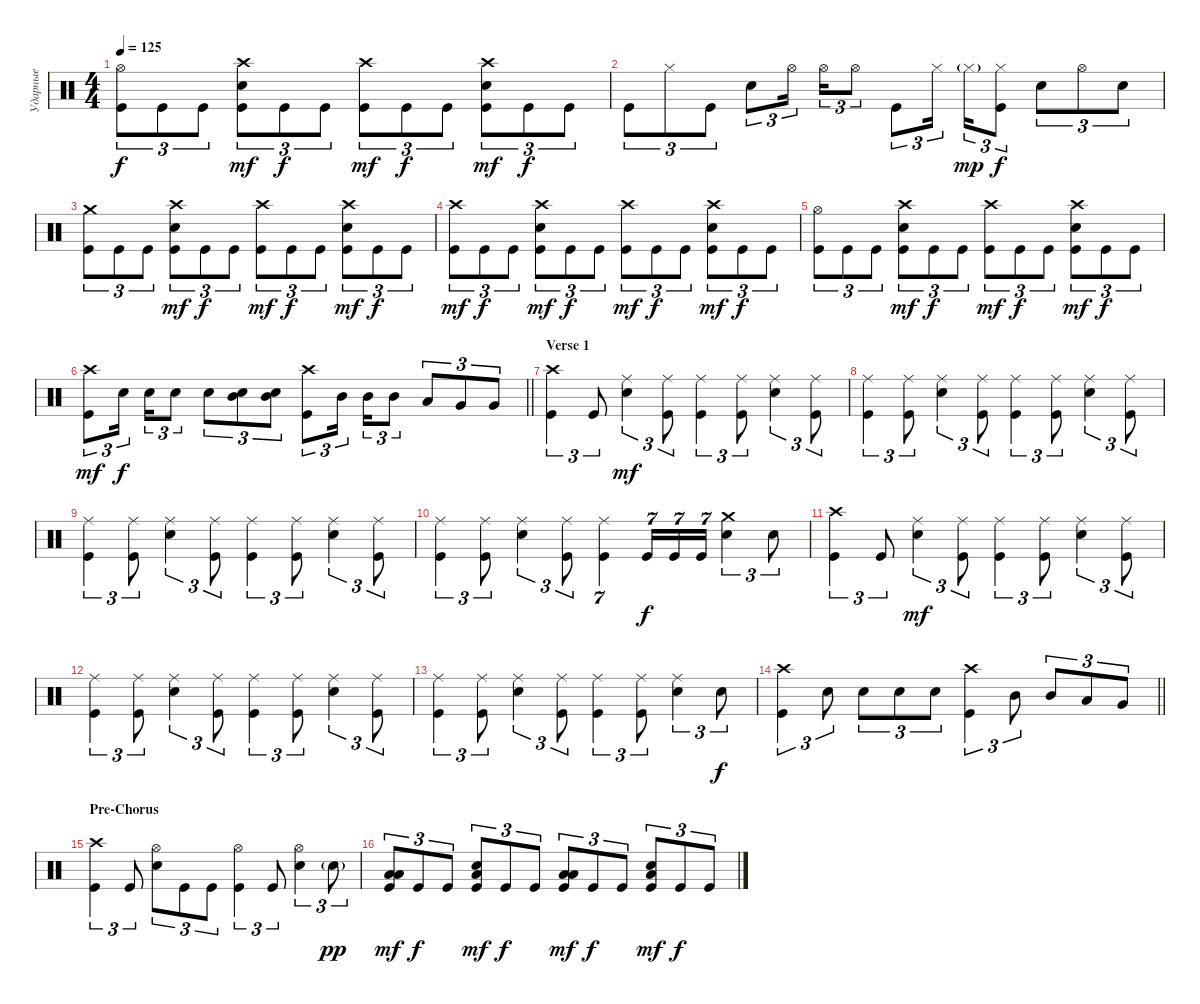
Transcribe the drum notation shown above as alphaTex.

\track ("Ударные" "Ударные") {instrument percussion}
\staff {score}
\articulation defaults
\ts (4 4)
\tempo 125
\clef neutral
\ks c
("Kick (hit)" "Hi-Hat (open)").8{tu (3 2) dy f} "Kick (hit)".8{tu (3 2)} "Kick (hit)".8{tu (3 2)} ("Kick (hit)" "Snare (hit) 2" "Crash high (hit)").8{tu (3 2) dy mf} "Kick (hit)".8{tu (3 2) dy f} "Kick (hit)".8{tu (3 2)} ("Kick (hit)" "Crash high (hit)").8{tu (3 2) dy mf} "Kick (hit)".8{tu (3 2) dy f} "Kick (hit)".8{tu (3 2)} ("Kick (hit)" "Snare (hit) 2" "Crash high (hit)").8{tu (3 2) dy mf} "Kick (hit)".8{tu (3 2) dy f} "Kick (hit)".8{tu (3 2)} |
"Kick (hit)".8{tu (3 2)} "Hi-Hat (closed)".8{tu (3 2)} "Kick (hit)".8{tu (3 2)} "Snare (hit) 2".8{tu (3 2)} "Hi-Hat (open)".16{tu (3 2) beam splitsecondary} "Hi-Hat (open)".16{tu (3 2)} "Hi-Hat (open)".8{tu (3 2)} "Kick (hit)".8{tu (3 2)} "Hi-Hat (closed)".16{tu (3 2) beam splitsecondary} "Hi-Hat (closed)"{g}.16{tu (3 2) dy mp} ("Hi-Hat (closed)" "Kick (hit)").8{tu (3 2) dy f} "Snare (hit) 2".8{tu (3 2)} "Hi-Hat (open)".8{tu (3 2)} "Snare (hit) 2".8{tu (3 2)} |
("Kick (hit)" "Crash medium (hit)").8{tu (3 2)} "Kick (hit)".8{tu (3 2)} "Kick (hit)".8{tu (3 2)} ("Kick (hit)" "Snare (hit) 2" "Crash high (hit)").8{tu (3 2) dy mf} "Kick (hit)".8{tu (3 2) dy f} "Kick (hit)".8{tu (3 2)} ("Kick (hit)" "Crash high (hit)").8{tu (3 2) dy mf} "Kick (hit)".8{tu (3 2) dy f} "Kick (hit)".8{tu (3 2)} ("Kick (hit)" "Snare (hit) 2" "Crash high (hit)").8{tu (3 2) dy mf} "Kick (hit)".8{tu (3 2) dy f} "Kick (hit)".8{tu (3 2)} |
("Kick (hit)" "Crash high (hit)").8{tu (3 2) dy mf} "Kick (hit)".8{tu (3 2) dy f} "Kick (hit)".8{tu (3 2)} ("Kick (hit)" "Snare (hit) 2" "Crash high (hit)").8{tu (3 2) dy mf} "Kick (hit)".8{tu (3 2) dy f} "Kick (hit)".8{tu (3 2)} ("Kick (hit)" "Crash high (hit)").8{tu (3 2) dy mf} "Kick (hit)".8{tu (3 2) dy f} "Kick (hit)".8{tu (3 2)} ("Kick (hit)" "Snare (hit) 2" "Crash high (hit)").8{tu (3 2) dy mf} "Kick (hit)".8{tu (3 2) dy f} "Kick (hit)".8{tu (3 2)} |
("Kick (hit)" "Hi-Hat (open)").8{tu (3 2)} "Kick (hit)".8{tu (3 2)} "Kick (hit)".8{tu (3 2)} ("Kick (hit)" "Snare (hit) 2" "Crash high (hit)").8{tu (3 2) dy mf} "Kick (hit)".8{tu (3 2) dy f} "Kick (hit)".8{tu (3 2)} ("Kick (hit)" "Crash high (hit)").8{tu (3 2) dy mf} "Kick (hit)".8{tu (3 2) dy f} "Kick (hit)".8{tu (3 2)} ("Kick (hit)" "Snare (hit) 2" "Crash high (hit)").8{tu (3 2) dy mf} "Kick (hit)".8{tu (3 2) dy f} "Kick (hit)".8{tu (3 2)} |
\barLineRight lightlight
("Kick (hit)" "Crash high (hit)").8{tu (3 2) dy mf} "Snare (hit) 2".16{tu (3 2) dy f beam splitsecondary} "Snare (hit) 2".16{tu (3 2)} "Snare (hit) 2".8{tu (3 2)} "Snare (hit) 2".8{tu (3 2)} ("Snare (hit) 2" "Mid Tom (hit)").8{tu (3 2)} ("Snare (hit) 2" "Mid Tom (hit)").8{tu (3 2)} ("Kick (hit)" "Crash high (hit)").8{tu (3 2)} "Mid Tom (hit)".16{tu (3 2) beam splitsecondary} "Mid Tom (hit)".16{tu (3 2)} "Mid Tom (hit)".8{tu (3 2)} "Low Tom (hit)".8{tu (3 2)} "Very Low Tom (hit)".8{tu (3 2)} "Very Low Tom (hit)".8{tu (3 2)} |
\section ("" "Verse 1")
("Kick (hit)" "Crash high (hit)").4{tu (3 2)} "Kick (hit)".8{tu (3 2)} ("Snare (hit) 2" "Ride (middle)").4{tu (3 2) dy mf} ("Kick (hit)" "Ride (middle)").8{tu (3 2)} ("Kick (hit)" "Ride (middle)").4{tu (3 2)} ("Kick (hit)" "Ride (middle)").8{tu (3 2)} ("Snare (hit) 2" "Ride (middle)").4{tu (3 2)} ("Kick (hit)" "Ride (middle)").8{tu (3 2)} |
("Kick (hit)" "Ride (middle)").4{tu (3 2)} ("Kick (hit)" "Ride (middle)").8{tu (3 2)} ("Snare (hit) 2" "Ride (middle)").4{tu (3 2)} ("Kick (hit)" "Ride (middle)").8{tu (3 2)} ("Kick (hit)" "Ride (middle)").4{tu (3 2)} ("Kick (hit)" "Ride (middle)").8{tu (3 2)} ("Snare (hit) 2" "Ride (middle)").4{tu (3 2)} ("Kick (hit)" "Ride (middle)").8{tu (3 2)} |
("Kick (hit)" "Ride (middle)").4{tu (3 2)} ("Kick (hit)" "Ride (middle)").8{tu (3 2)} ("Snare (hit) 2" "Ride (middle)").4{tu (3 2)} ("Kick (hit)" "Ride (middle)").8{tu (3 2)} ("Kick (hit)" "Ride (middle)").4{tu (3 2)} ("Kick (hit)" "Ride (middle)").8{tu (3 2)} ("Snare (hit) 2" "Ride (middle)").4{tu (3 2)} ("Kick (hit)" "Ride (middle)").8{tu (3 2)} |
("Kick (hit)" "Ride (middle)").4{tu (3 2)} ("Kick (hit)" "Ride (middle)").8{tu (3 2)} ("Snare (hit) 2" "Ride (middle)").4{tu (3 2)} ("Kick (hit)" "Ride (middle)").8{tu (3 2)} ("Kick (hit)" "Ride (middle)").4{tu (7 4)} "Kick (hit)".16{tu (7 4) dy f} "Kick (hit)".16{tu (7 4)} "Kick (hit)".16{tu (7 4)} ("Snare (hit) 2" "Crash medium (hit)").4{tu (3 2)} "Snare (hit) 2".8{tu (3 2)} |
("Kick (hit)" "Crash high (hit)").4{tu (3 2)} "Kick (hit)".8{tu (3 2)} ("Snare (hit) 2" "Ride (middle)").4{tu (3 2) dy mf} ("Kick (hit)" "Ride (middle)").8{tu (3 2)} ("Kick (hit)" "Ride (middle)").4{tu (3 2)} ("Kick (hit)" "Ride (middle)").8{tu (3 2)} ("Snare (hit) 2" "Ride (middle)").4{tu (3 2)} ("Kick (hit)" "Ride (middle)").8{tu (3 2)} |
("Kick (hit)" "Ride (middle)").4{tu (3 2)} ("Kick (hit)" "Ride (middle)").8{tu (3 2)} ("Snare (hit) 2" "Ride (middle)").4{tu (3 2)} ("Kick (hit)" "Ride (middle)").8{tu (3 2)} ("Kick (hit)" "Ride (middle)").4{tu (3 2)} ("Kick (hit)" "Ride (middle)").8{tu (3 2)} ("Snare (hit) 2" "Ride (middle)").4{tu (3 2)} ("Kick (hit)" "Ride (middle)").8{tu (3 2)} |
("Kick (hit)" "Ride (middle)").4{tu (3 2)} ("Kick (hit)" "Ride (middle)").8{tu (3 2)} ("Snare (hit) 2" "Ride (middle)").4{tu (3 2)} ("Kick (hit)" "Ride (middle)").8{tu (3 2)} ("Kick (hit)" "Ride (middle)").4{tu (3 2)} ("Kick (hit)" "Ride (middle)").8{tu (3 2)} ("Snare (hit) 2" "Ride (middle)").4{tu (3 2)} "Snare (hit) 2".8{tu (3 2) dy f} |
\barLineRight lightlight
("Kick (hit)" "Crash high (hit)").4{tu (3 2)} "Snare (hit) 2".8{tu (3 2)} "Snare (hit) 2".8{tu (3 2)} "Snare (hit) 2".8{tu (3 2)} "Snare (hit) 2".8{tu (3 2)} ("Kick (hit)" "Crash high (hit)").4{tu (3 2)} "Mid Tom (hit)".8{tu (3 2)} "Mid Tom (hit)".8{tu (3 2)} "Low Tom (hit)".8{tu (3 2)} "Very Low Tom (hit)".8{tu (3 2)} |
\section ("" "Pre-Chorus")
("Kick (hit)" "Crash high (hit)").4{tu (3 2)} "Kick (hit)".8{tu (3 2)} ("Snare (hit) 2" "Hi-Hat (open)").8{tu (3 2)} "Kick (hit)".8{tu (3 2)} "Kick (hit)".8{tu (3 2)} ("Kick (hit)" "Hi-Hat (open)").4{tu (3 2)} "Kick (hit)".8{tu (3 2)} ("Snare (hit) 2" "Hi-Hat (open)").4{tu (3 2)} "Snare (hit) 2"{g}.8{tu (3 2) dy pp} |
("Kick (hit)" "Low Floor Tom (hit)" "Low Tom (hit)").8{tu (3 2) bd 120 dy mf} "Kick (hit)".8{tu (3 2) dy f} "Kick (hit)".8{tu (3 2)} ("Kick (hit)" "Snare (hit) 2" "Low Floor Tom (hit)").8{tu (3 2) bd 120 dy mf} "Kick (hit)".8{tu (3 2) dy f} "Kick (hit)".8{tu (3 2)} ("Kick (hit)" "Low Floor Tom (hit)" "Low Tom (hit)").8{tu (3 2) bd 120 dy mf} "Kick (hit)".8{tu (3 2) dy f} "Kick (hit)".8{tu (3 2)} ("Kick (hit)" "Snare (hit) 2" "Low Floor Tom (hit)").8{tu (3 2) bd 120 dy mf} "Kick (hit)".8{tu (3 2) dy f} "Kick (hit)".8{tu (3 2)}
